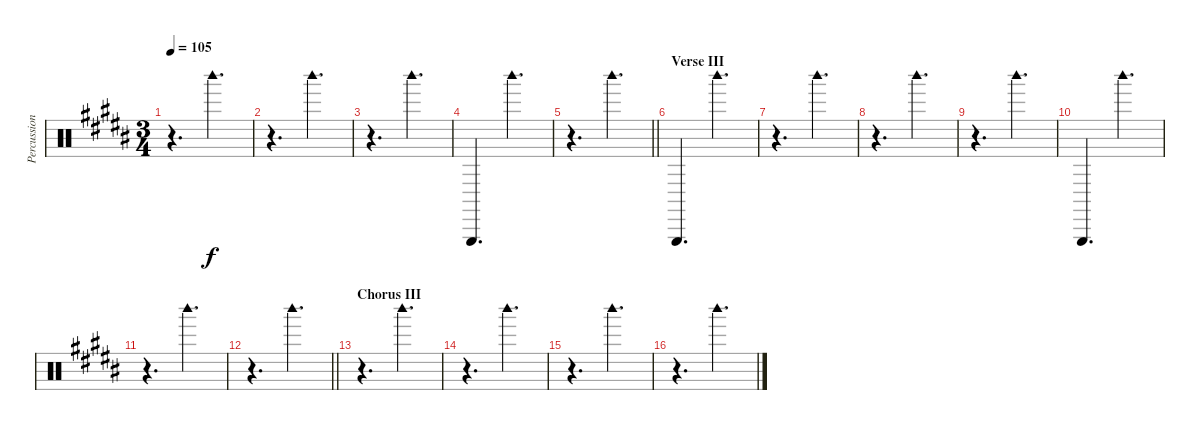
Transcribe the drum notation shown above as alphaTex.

\track ("Percussion" "Percussion") {instrument percussion}
\staff {score}
\articulation defaults
\ts (3 4)
\tempo 105
\clef neutral
\ks b
r.4{d dy f} "Woodblock high (hit)".4{d} |
r.4{d} "Woodblock high (hit)".4{d} |
r.4{d} "Woodblock high (hit)".4{d} |
"Triangle (hit)".4{d} "Woodblock high (hit)".4{d} |
\barLineRight lightlight
r.4{d} "Woodblock high (hit)".4{d} |
\section ("" "Verse III")
"Triangle (hit)".4{d} "Woodblock high (hit)".4{d} |
r.4{d} "Woodblock high (hit)".4{d} |
r.4{d} "Woodblock high (hit)".4{d} |
r.4{d} "Woodblock high (hit)".4{d} |
"Triangle (hit)".4{d} "Woodblock high (hit)".4{d} |
r.4{d} "Woodblock high (hit)".4{d} |
\barLineRight lightlight
r.4{d} "Woodblock high (hit)".4{d} |
\section ("" "Chorus III")
r.4{d} "Woodblock high (hit)".4{d} |
r.4{d} "Woodblock high (hit)".4{d} |
r.4{d} "Woodblock high (hit)".4{d} |
r.4{d} "Woodblock high (hit)".4{d}
